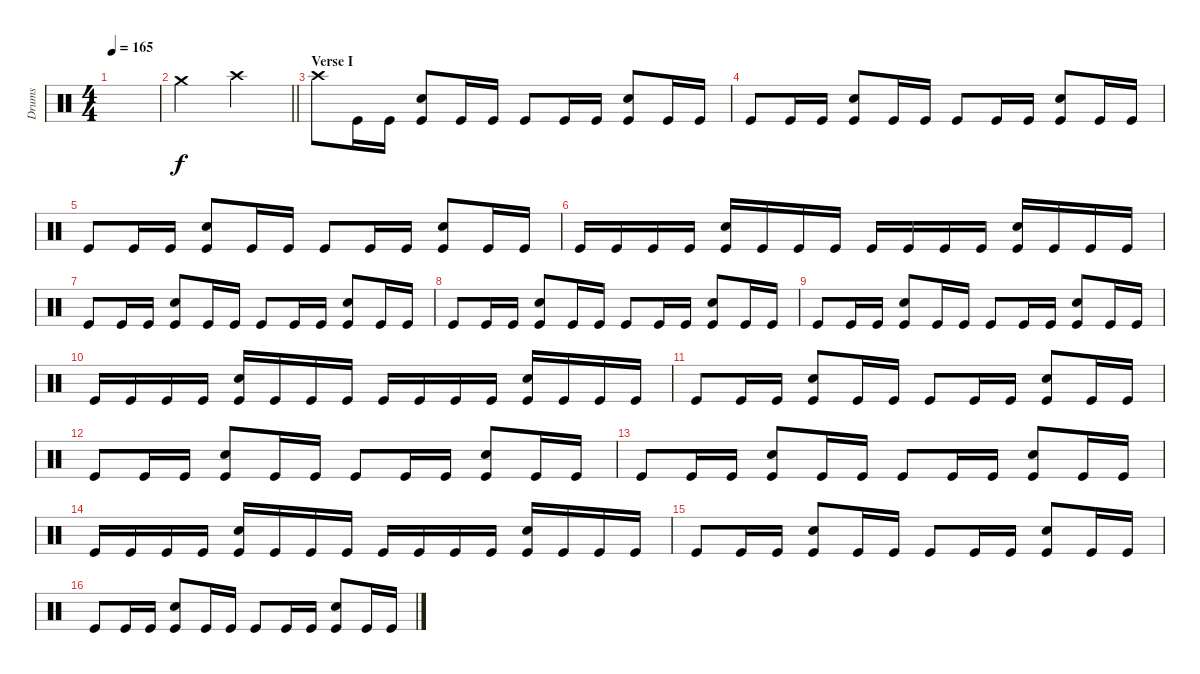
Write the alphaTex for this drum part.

\track ("Drums" "Drums") {instrument percussion}
\staff {score}
\articulation defaults
\ts (4 4)
\tempo 165
\clef neutral
\ks c
|
\barLineRight lightlight "Crash medium (hit)".2 "Crash high (hit)".2
|
\section ("" "Verse I")
"Crash high (hit)".8 "Kick (hit)".16 "Kick (hit)".16 ("Kick (hit)" "Snare (hit) 2").8 "Kick (hit)".16 "Kick (hit)".16 "Kick (hit)".8 "Kick (hit)".16 "Kick (hit)".16 ("Kick (hit)" "Snare (hit) 2").8 "Kick (hit)".16 "Kick (hit)".16 |
"Kick (hit)".8 "Kick (hit)".16 "Kick (hit)".16 ("Kick (hit)" "Snare (hit) 2").8 "Kick (hit)".16 "Kick (hit)".16 "Kick (hit)".8 "Kick (hit)".16 "Kick (hit)".16 ("Kick (hit)" "Snare (hit) 2").8 "Kick (hit)".16 "Kick (hit)".16 |
"Kick (hit)".8 "Kick (hit)".16 "Kick (hit)".16 ("Kick (hit)" "Snare (hit) 2").8 "Kick (hit)".16 "Kick (hit)".16 "Kick (hit)".8 "Kick (hit)".16 "Kick (hit)".16 ("Kick (hit)" "Snare (hit) 2").8 "Kick (hit)".16 "Kick (hit)".16 |
"Kick (hit)".16 "Kick (hit)".16 "Kick (hit)".16 "Kick (hit)".16 ("Kick (hit)" "Snare (hit) 2").16 "Kick (hit)".16 "Kick (hit)".16 "Kick (hit)".16 "Kick (hit)".16 "Kick (hit)".16 "Kick (hit)".16 "Kick (hit)".16 ("Kick (hit)" "Snare (hit) 2").16 "Kick (hit)".16 "Kick (hit)".16 "Kick (hit)".16 |
"Kick (hit)".8 "Kick (hit)".16 "Kick (hit)".16 ("Kick (hit)" "Snare (hit) 2").8 "Kick (hit)".16 "Kick (hit)".16 "Kick (hit)".8 "Kick (hit)".16 "Kick (hit)".16 ("Kick (hit)" "Snare (hit) 2").8 "Kick (hit)".16 "Kick (hit)".16 |
"Kick (hit)".8 "Kick (hit)".16 "Kick (hit)".16 ("Kick (hit)" "Snare (hit) 2").8 "Kick (hit)".16 "Kick (hit)".16 "Kick (hit)".8 "Kick (hit)".16 "Kick (hit)".16 ("Kick (hit)" "Snare (hit) 2").8 "Kick (hit)".16 "Kick (hit)".16 |
"Kick (hit)".8 "Kick (hit)".16 "Kick (hit)".16 ("Kick (hit)" "Snare (hit) 2").8 "Kick (hit)".16 "Kick (hit)".16 "Kick (hit)".8 "Kick (hit)".16 "Kick (hit)".16 ("Kick (hit)" "Snare (hit) 2").8 "Kick (hit)".16 "Kick (hit)".16 |
"Kick (hit)".16 "Kick (hit)".16 "Kick (hit)".16 "Kick (hit)".16 ("Kick (hit)" "Snare (hit) 2").16 "Kick (hit)".16 "Kick (hit)".16 "Kick (hit)".16 "Kick (hit)".16 "Kick (hit)".16 "Kick (hit)".16 "Kick (hit)".16 ("Kick (hit)" "Snare (hit) 2").16 "Kick (hit)".16 "Kick (hit)".16 "Kick (hit)".16 |
"Kick (hit)".8 "Kick (hit)".16 "Kick (hit)".16 ("Kick (hit)" "Snare (hit) 2").8 "Kick (hit)".16 "Kick (hit)".16 "Kick (hit)".8 "Kick (hit)".16 "Kick (hit)".16 ("Kick (hit)" "Snare (hit) 2").8 "Kick (hit)".16 "Kick (hit)".16 |
"Kick (hit)".8 "Kick (hit)".16 "Kick (hit)".16 ("Kick (hit)" "Snare (hit) 2").8 "Kick (hit)".16 "Kick (hit)".16 "Kick (hit)".8 "Kick (hit)".16 "Kick (hit)".16 ("Kick (hit)" "Snare (hit) 2").8 "Kick (hit)".16 "Kick (hit)".16 |
"Kick (hit)".8 "Kick (hit)".16 "Kick (hit)".16 ("Kick (hit)" "Snare (hit) 2").8 "Kick (hit)".16 "Kick (hit)".16 "Kick (hit)".8 "Kick (hit)".16 "Kick (hit)".16 ("Kick (hit)" "Snare (hit) 2").8 "Kick (hit)".16 "Kick (hit)".16 |
"Kick (hit)".16 "Kick (hit)".16 "Kick (hit)".16 "Kick (hit)".16 ("Kick (hit)" "Snare (hit) 2").16 "Kick (hit)".16 "Kick (hit)".16 "Kick (hit)".16 "Kick (hit)".16 "Kick (hit)".16 "Kick (hit)".16 "Kick (hit)".16 ("Kick (hit)" "Snare (hit) 2").16 "Kick (hit)".16 "Kick (hit)".16 "Kick (hit)".16 |
"Kick (hit)".8 "Kick (hit)".16 "Kick (hit)".16 ("Kick (hit)" "Snare (hit) 2").8 "Kick (hit)".16 "Kick (hit)".16 "Kick (hit)".8 "Kick (hit)".16 "Kick (hit)".16 ("Kick (hit)" "Snare (hit) 2").8 "Kick (hit)".16 "Kick (hit)".16 |
"Kick (hit)".8 "Kick (hit)".16 "Kick (hit)".16 ("Kick (hit)" "Snare (hit) 2").8 "Kick (hit)".16 "Kick (hit)".16 "Kick (hit)".8 "Kick (hit)".16 "Kick (hit)".16 ("Kick (hit)" "Snare (hit) 2").8 "Kick (hit)".16 "Kick (hit)".16
